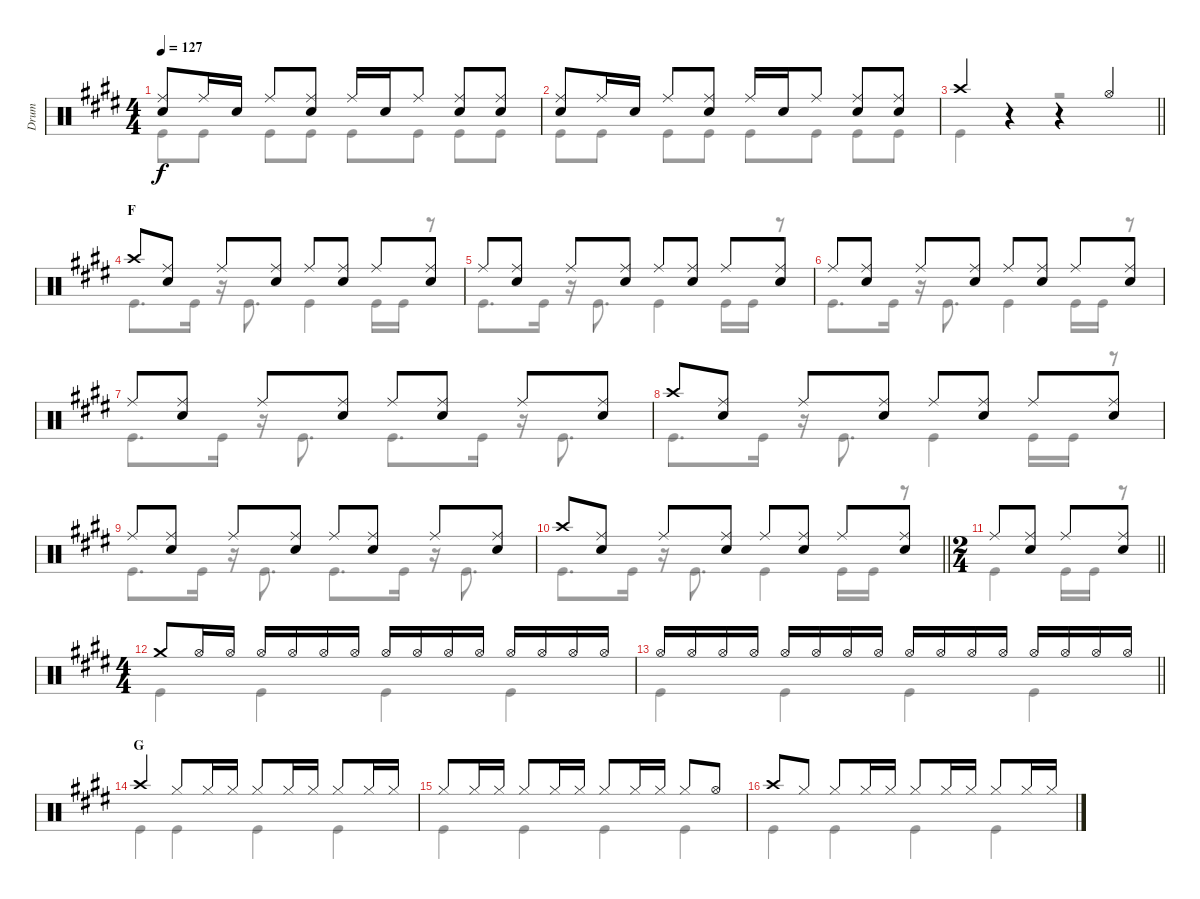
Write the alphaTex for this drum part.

\track ("Drum" "Drum") {instrument percussion}
\staff {score}
\articulation defaults
\voice
\ts (4 4)
\tempo 127
\clef neutral
\ks e
("Ride (middle)" "Snare (hit) 2").8{dy f} "Ride (middle)".16 "Snare (hit) 2".16 "Ride (middle)".8 ("Ride (middle)" "Snare (hit) 2").8 "Ride (middle)".16 "Snare (hit) 2".16 "Ride (middle)".8 ("Ride (middle)" "Snare (hit) 2").8 ("Ride (middle)" "Snare (hit) 2").8 |
("Ride (middle)" "Snare (hit) 2").8 "Ride (middle)".16 "Snare (hit) 2".16 "Ride (middle)".8 ("Ride (middle)" "Snare (hit) 2").8 "Ride (middle)".16 "Snare (hit) 2".16 "Ride (middle)".8 ("Ride (middle)" "Snare (hit) 2").8 ("Ride (middle)" "Snare (hit) 2").8 |
\barLineRight lightlight "Crash high (hit)".4
r.4 r.4 "Hi-Hat (open)".4 |
\section ("" "F")
"Crash high (hit)".8 ("Snare (hit) 2" "Ride (middle)").8 "Ride (middle)".8 ("Ride (middle)" "Snare (hit) 2").8 "Ride (middle)".8 ("Ride (middle)" "Snare (hit) 2").8 "Ride (middle)".8 ("Ride (middle)" "Snare (hit) 2").8 |
"Ride (middle)".8 ("Ride (middle)" "Snare (hit) 2").8 "Ride (middle)".8 ("Ride (middle)" "Snare (hit) 2").8 "Ride (middle)".8 ("Ride (middle)" "Snare (hit) 2").8 "Ride (middle)".8 ("Ride (middle)" "Snare (hit) 2").8 |
"Ride (middle)".8 ("Ride (middle)" "Snare (hit) 2").8 "Ride (middle)".8 ("Ride (middle)" "Snare (hit) 2").8 "Ride (middle)".8 ("Ride (middle)" "Snare (hit) 2").8 "Ride (middle)".8 ("Ride (middle)" "Snare (hit) 2").8 |
"Ride (middle)".8 ("Ride (middle)" "Snare (hit) 2").8 "Ride (middle)".8 ("Ride (middle)" "Snare (hit) 2").8 "Ride (middle)".8 ("Ride (middle)" "Snare (hit) 2").8 "Ride (middle)".8 ("Ride (middle)" "Snare (hit) 2").8 |
"Crash high (hit)".8 ("Snare (hit) 2" "Ride (middle)").8 "Ride (middle)".8 ("Ride (middle)" "Snare (hit) 2").8 "Ride (middle)".8 ("Ride (middle)" "Snare (hit) 2").8 "Ride (middle)".8 ("Ride (middle)" "Snare (hit) 2").8 |
"Ride (middle)".8 ("Ride (middle)" "Snare (hit) 2").8 "Ride (middle)".8 ("Ride (middle)" "Snare (hit) 2").8 "Ride (middle)".8 ("Ride (middle)" "Snare (hit) 2").8 "Ride (middle)".8 ("Ride (middle)" "Snare (hit) 2").8 |
\barLineRight lightlight "Crash high (hit)".8
("Snare (hit) 2" "Ride (middle)").8 "Ride (middle)".8 ("Ride (middle)" "Snare (hit) 2").8 "Ride (middle)".8 ("Ride (middle)" "Snare (hit) 2").8 "Ride (middle)".8 ("Ride (middle)" "Snare (hit) 2").8 |
\ts (2 4)
\barLineRight lightlight "Ride (middle)".8
("Ride (middle)" "Snare (hit) 2").8 "Ride (middle)".8 ("Ride (middle)" "Snare (hit) 2").8 |
\ts (4 4)
"Crash medium (hit)".8 "Hi-Hat (open)".16 "Hi-Hat (open)".16 "Hi-Hat (open)".16 "Hi-Hat (open)".16 "Hi-Hat (open)".16 "Hi-Hat (open)".16 "Hi-Hat (open)".16 "Hi-Hat (open)".16 "Hi-Hat (open)".16 "Hi-Hat (open)".16 "Hi-Hat (open)".16 "Hi-Hat (open)".16 "Hi-Hat (open)".16 "Hi-Hat (open)".16 |
\barLineRight lightlight "Hi-Hat (open)".16 "Hi-Hat (open)".16 "Hi-Hat (open)".16 "Hi-Hat (open)".16 "Hi-Hat (open)".16 "Hi-Hat (open)".16 "Hi-Hat (open)".16 "Hi-Hat (open)".16 "Hi-Hat (open)".16 "Hi-Hat (open)".16 "Hi-Hat (open)".16 "Hi-Hat (open)".16 "Hi-Hat (open)".16 "Hi-Hat (open)".16 "Hi-Hat (open)".16 "Hi-Hat (open)".16
|
\section ("" "G")
"Crash high (hit)".4 "Hi-Hat (closed)".8 "Hi-Hat (closed)".16 "Hi-Hat (closed)".16 "Hi-Hat (closed)".8 "Hi-Hat (closed)".16 "Hi-Hat (closed)".16 "Hi-Hat (closed)".8 "Hi-Hat (closed)".16 "Hi-Hat (closed)".16 |
"Hi-Hat (closed)".8 "Hi-Hat (closed)".16 "Hi-Hat (closed)".16 "Hi-Hat (closed)".8 "Hi-Hat (closed)".16 "Hi-Hat (closed)".16 "Hi-Hat (closed)".8 "Hi-Hat (closed)".16 "Hi-Hat (closed)".16 "Hi-Hat (closed)".8 "Hi-Hat (open)".8 |
"Crash high (hit)".8 "Hi-Hat (closed)".8 "Hi-Hat (closed)".8 "Hi-Hat (closed)".16 "Hi-Hat (closed)".16 "Hi-Hat (closed)".8 "Hi-Hat (closed)".16 "Hi-Hat (closed)".16 "Hi-Hat (closed)".8 "Hi-Hat (closed)".16 "Hi-Hat (closed)".16
\voice
\clef neutral
\ottava regular
\simile none
\ks e "Kick (hit)".8{dy f} "Kick (hit)".8 "Kick (hit)".8 "Kick (hit)".8 "Kick (hit)".8 "Kick (hit)".8 "Kick (hit)".8 "Kick (hit)".8
|
"Kick (hit)".8 "Kick (hit)".8 "Kick (hit)".8 "Kick (hit)".8 "Kick (hit)".8 "Kick (hit)".8 "Kick (hit)".8 "Kick (hit)".8 |
\barLineRight lightlight "Kick (hit)".4
r.4 r.2 |
"Kick (hit)".8{d} "Kick (hit)".16 r.16 "Kick (hit)".8{d} "Kick (hit)".4 "Kick (hit)".16 "Kick (hit)".16 r.8 |
"Kick (hit)".8{d} "Kick (hit)".16 r.16 "Kick (hit)".8{d} "Kick (hit)".4 "Kick (hit)".16 "Kick (hit)".16 r.8 |
"Kick (hit)".8{d} "Kick (hit)".16 r.16 "Kick (hit)".8{d} "Kick (hit)".4 "Kick (hit)".16 "Kick (hit)".16 r.8 |
"Kick (hit)".8{d} "Kick (hit)".16 r.16 "Kick (hit)".8{d} "Kick (hit)".8{d} "Kick (hit)".16 r.16 "Kick (hit)".8{d} |
"Kick (hit)".8{d} "Kick (hit)".16 r.16 "Kick (hit)".8{d} "Kick (hit)".4 "Kick (hit)".16 "Kick (hit)".16 r.8 |
"Kick (hit)".8{d} "Kick (hit)".16 r.16 "Kick (hit)".8{d} "Kick (hit)".8{d} "Kick (hit)".16 r.16 "Kick (hit)".8{d} |
\barLineRight lightlight "Kick (hit)".8{d} "Kick (hit)".16
r.16 "Kick (hit)".8{d} "Kick (hit)".4 "Kick (hit)".16 "Kick (hit)".16 r.8 |
\barLineRight lightlight "Kick (hit)".4 "Kick (hit)".16 "Kick (hit)".16
r.8 |
"Kick (hit)".4 "Kick (hit)".4 "Kick (hit)".4 "Kick (hit)".4 |
\barLineRight lightlight "Kick (hit)".4 "Kick (hit)".4 "Kick (hit)".4 "Kick (hit)".4
|
"Kick (hit)".4 "Kick (hit)".4 "Kick (hit)".4 "Kick (hit)".4 |
"Kick (hit)".4 "Kick (hit)".4 "Kick (hit)".4 "Kick (hit)".4 |
"Kick (hit)".4 "Kick (hit)".4 "Kick (hit)".4 "Kick (hit)".4
